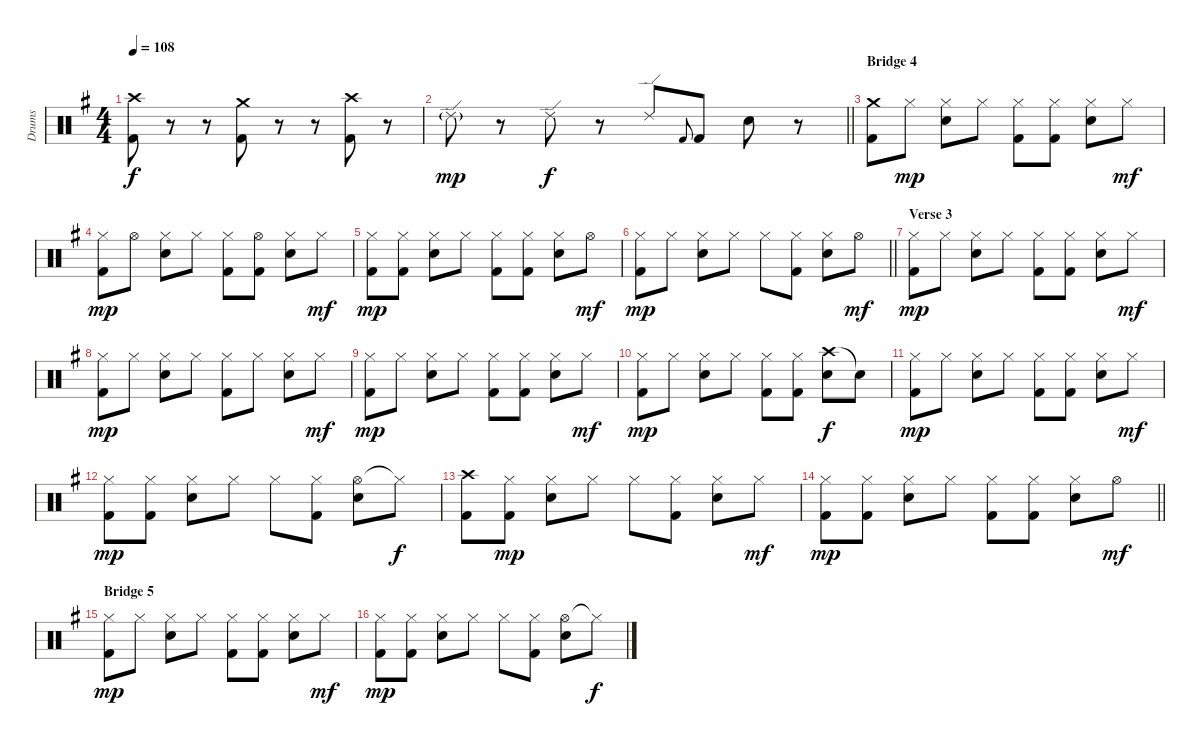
\track ("Drums" "Drums") {instrument percussion}
\staff {score}
\articulation defaults
\ts (4 4)
\tempo 108
\clef neutral
\ks g
("Crash high (hit)" "Kick (hit) 2").8{dy f} r.8 r.8 ("Crash medium (hit)" "Kick (hit) 2").8 r.8 r.8 ("Crash high (hit)" "Kick (hit) 2").8 r.8 |
\barLineRight lightlight "Ride (edge) 2"{g}.8{dy mp}
r.8 "Ride (edge) 2".8{dy f} r.8 "Ride (edge) 2".8 "Kick (hit) 2".8{gr onbeat} "Kick (hit) 2".8 "Snare (hit) 2".8 r.8 |
\section ("" "Bridge 4")
("Crash medium (hit)" "Kick (hit) 2").8 "Hi-Hat (closed)".8{dy mp} ("Hi-Hat (closed)" "Snare (hit) 2").8 "Hi-Hat (closed)".8 ("Hi-Hat (closed)" "Kick (hit) 2").8 ("Hi-Hat (closed)" "Kick (hit) 2").8 ("Hi-Hat (closed)" "Snare (hit) 2").8 "Hi-Hat (closed)".8{dy mf} |
("Hi-Hat (closed)" "Kick (hit) 2").8{dy mp} "Hi-Hat (open)".8 ("Hi-Hat (closed)" "Snare (hit) 2").8 "Hi-Hat (closed)".8 ("Hi-Hat (closed)" "Kick (hit) 2").8 ("Hi-Hat (open)" "Kick (hit) 2").8 ("Hi-Hat (closed)" "Snare (hit) 2").8 "Hi-Hat (closed)".8{dy mf} |
("Hi-Hat (closed)" "Kick (hit) 2").8{dy mp} ("Hi-Hat (closed)" "Kick (hit) 2").8 ("Hi-Hat (closed)" "Snare (hit) 2").8 "Hi-Hat (closed)".8 ("Hi-Hat (closed)" "Kick (hit) 2").8 ("Hi-Hat (closed)" "Kick (hit) 2").8 ("Hi-Hat (closed)" "Snare (hit) 2").8 "Hi-Hat (open)".8{dy mf} |
\barLineRight lightlight
("Hi-Hat (closed)" "Kick (hit) 2").8{dy mp} "Hi-Hat (closed)".8 ("Hi-Hat (closed)" "Snare (hit) 2").8 "Hi-Hat (closed)".8 "Hi-Hat (closed)".8 ("Hi-Hat (closed)" "Kick (hit) 2").8 ("Hi-Hat (closed)" "Snare (hit) 2").8 "Hi-Hat (open)".8{dy mf} |
\section ("" "Verse 3")
("Hi-Hat (closed)" "Kick (hit) 2").8{dy mp} "Hi-Hat (closed)".8 ("Hi-Hat (closed)" "Snare (hit) 2").8 "Hi-Hat (closed)".8 ("Hi-Hat (closed)" "Kick (hit) 2").8 ("Hi-Hat (closed)" "Kick (hit) 2").8 ("Hi-Hat (closed)" "Snare (hit) 2").8 "Hi-Hat (closed)".8{dy mf} |
("Hi-Hat (closed)" "Kick (hit) 2").8{dy mp} "Hi-Hat (closed)".8 ("Hi-Hat (closed)" "Snare (hit) 2").8 "Hi-Hat (closed)".8 ("Hi-Hat (closed)" "Kick (hit) 2").8 "Hi-Hat (closed)".8 ("Hi-Hat (closed)" "Snare (hit) 2").8 "Hi-Hat (closed)".8{dy mf} |
("Hi-Hat (closed)" "Kick (hit) 2").8{dy mp} "Hi-Hat (closed)".8 ("Hi-Hat (closed)" "Snare (hit) 2").8 "Hi-Hat (closed)".8 ("Hi-Hat (closed)" "Kick (hit) 2").8 ("Hi-Hat (closed)" "Kick (hit) 2").8 ("Hi-Hat (closed)" "Snare (hit) 2").8 "Hi-Hat (closed)".8{dy mf} |
("Hi-Hat (closed)" "Kick (hit) 2").8{dy mp} "Hi-Hat (closed)".8 ("Hi-Hat (closed)" "Snare (hit) 2").8 "Hi-Hat (closed)".8 ("Hi-Hat (closed)" "Kick (hit) 2").8 ("Hi-Hat (closed)" "Kick (hit) 2").8 ("Crash high (hit)" "Snare (hit) 2").8{dy f} "Snare (hit)"{t}.8 |
("Hi-Hat (closed)" "Kick (hit) 2").8{dy mp} "Hi-Hat (closed)".8 ("Hi-Hat (closed)" "Snare (hit) 2").8 "Hi-Hat (closed)".8 ("Hi-Hat (closed)" "Kick (hit) 2").8 ("Hi-Hat (closed)" "Kick (hit) 2").8 ("Hi-Hat (closed)" "Snare (hit) 2").8 "Hi-Hat (closed)".8{dy mf} |
("Hi-Hat (closed)" "Kick (hit) 2").8{dy mp} ("Hi-Hat (closed)" "Kick (hit) 2").8 ("Hi-Hat (closed)" "Snare (hit) 2").8 "Hi-Hat (closed)".8 "Hi-Hat (closed)".8 ("Hi-Hat (closed)" "Kick (hit) 2").8 ("Hi-Hat (open)" "Snare (hit) 2").8 "Hi-Hat (closed)"{t}.8{dy f} |
("Crash high (hit)" "Kick (hit) 2").8 ("Hi-Hat (closed)" "Kick (hit) 2").8{dy mp} ("Hi-Hat (closed)" "Snare (hit) 2").8 "Hi-Hat (closed)".8 "Hi-Hat (closed)".8 ("Hi-Hat (closed)" "Kick (hit) 2").8 ("Hi-Hat (closed)" "Snare (hit) 2").8 "Hi-Hat (closed)".8{dy mf} |
\barLineRight lightlight
("Hi-Hat (closed)" "Kick (hit) 2").8{dy mp} ("Hi-Hat (closed)" "Kick (hit) 2").8 ("Hi-Hat (closed)" "Snare (hit) 2").8 "Hi-Hat (closed)".8 ("Hi-Hat (closed)" "Kick (hit) 2").8 ("Hi-Hat (closed)" "Kick (hit) 2").8 ("Hi-Hat (closed)" "Snare (hit) 2").8 "Hi-Hat (open)".8{dy mf} |
\section ("" "Bridge 5")
("Hi-Hat (closed)" "Kick (hit) 2").8{dy mp} "Hi-Hat (closed)".8 ("Hi-Hat (closed)" "Snare (hit) 2").8 "Hi-Hat (closed)".8 ("Hi-Hat (closed)" "Kick (hit) 2").8 ("Hi-Hat (closed)" "Kick (hit) 2").8 ("Hi-Hat (closed)" "Snare (hit) 2").8 "Hi-Hat (closed)".8{dy mf} |
("Hi-Hat (closed)" "Kick (hit) 2").8{dy mp} ("Hi-Hat (closed)" "Kick (hit) 2").8 ("Hi-Hat (closed)" "Snare (hit) 2").8 "Hi-Hat (closed)".8 "Hi-Hat (closed)".8 ("Hi-Hat (closed)" "Kick (hit) 2").8 ("Hi-Hat (open)" "Snare (hit) 2").8 "Hi-Hat (closed)"{t}.8{dy f}
